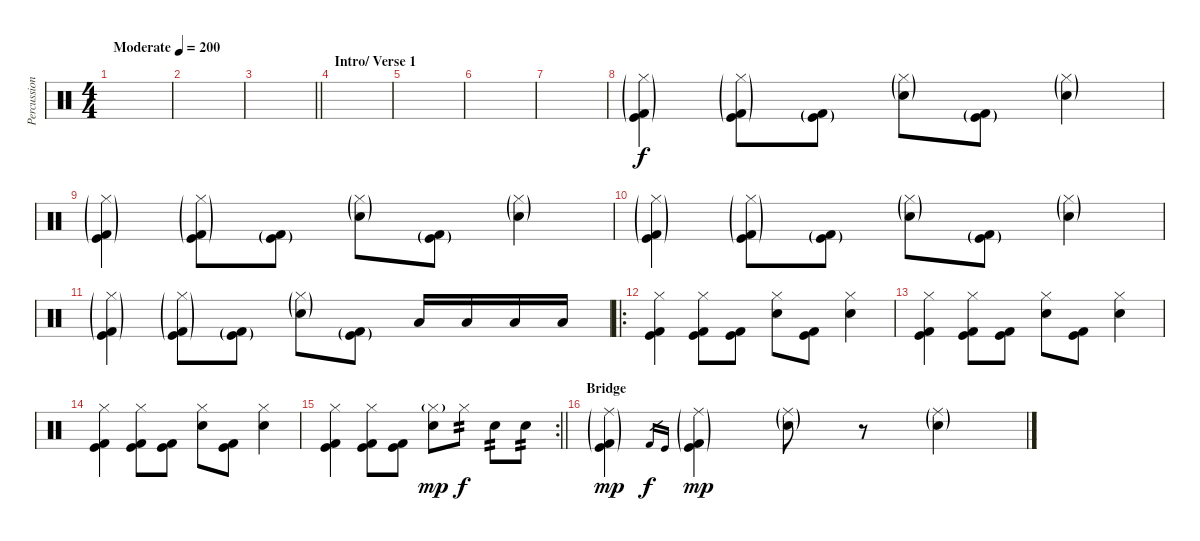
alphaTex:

\track ("Percussion" "Percussion") {instrument percussion}
\staff {score}
\articulation defaults
\ts (4 4)
\tempo (200 "Moderate")
\clef neutral
\ks c
|
|
\barLineRight lightlight
|
\section ("" "Intro/ Verse 1")
|
|
|
|
("Hi-Hat (closed)"{g} "Kick (hit)"{g} "Kick (hit) 2"{g}).4 ("Hi-Hat (closed)"{g} "Kick (hit)"{g} "Kick (hit) 2"{g}).8 ("Kick (hit)"{g} "Kick (hit) 2"{g}).8 ("Hi-Hat (closed)"{g} "Snare (hit) 2"{g}).8 ("Kick (hit)"{g} "Kick (hit) 2"{g}).8 ("Hi-Hat (closed)"{g} "Snare (hit) 2"{g}).4 |
("Hi-Hat (closed)"{g} "Kick (hit)"{g} "Kick (hit) 2"{g}).4 ("Hi-Hat (closed)"{g} "Kick (hit)"{g} "Kick (hit) 2"{g}).8 ("Kick (hit)"{g} "Kick (hit) 2"{g}).8 ("Hi-Hat (closed)"{g} "Snare (hit) 2"{g}).8 ("Kick (hit)"{g} "Kick (hit) 2"{g}).8 ("Hi-Hat (closed)"{g} "Snare (hit) 2"{g}).4 |
("Hi-Hat (closed)"{g} "Kick (hit)"{g} "Kick (hit) 2"{g}).4 ("Hi-Hat (closed)"{g} "Kick (hit)"{g} "Kick (hit) 2"{g}).8 ("Kick (hit)"{g} "Kick (hit) 2"{g}).8 ("Hi-Hat (closed)"{g} "Snare (hit) 2"{g}).8 ("Kick (hit)"{g} "Kick (hit) 2"{g}).8 ("Hi-Hat (closed)"{g} "Snare (hit) 2"{g}).4 |
("Hi-Hat (closed)"{g} "Kick (hit)"{g} "Kick (hit) 2"{g}).4 ("Hi-Hat (closed)"{g} "Kick (hit)"{g} "Kick (hit) 2"{g}).8 ("Kick (hit)"{g} "Kick (hit) 2"{g}).8 ("Hi-Hat (closed)"{g} "Snare (hit) 2"{g}).8 ("Kick (hit)"{g} "Kick (hit) 2"{g}).8 "Low Floor Tom (hit)".16{dy f volume 16} "Low Floor Tom (hit)".16 "Low Floor Tom (hit)".16 "Low Floor Tom (hit)".16 |
\ro
("Hi-Hat (closed)" "Kick (hit)" "Kick (hit) 2").4 ("Hi-Hat (closed)" "Kick (hit)" "Kick (hit) 2").8 ("Kick (hit)" "Kick (hit) 2").8 ("Hi-Hat (closed)" "Snare (hit) 2").8 ("Kick (hit)" "Kick (hit) 2").8 ("Hi-Hat (closed)" "Snare (hit) 2").4 |
("Hi-Hat (closed)" "Kick (hit)" "Kick (hit) 2").4 ("Hi-Hat (closed)" "Kick (hit)" "Kick (hit) 2").8 ("Kick (hit)" "Kick (hit) 2").8 ("Hi-Hat (closed)" "Snare (hit) 2").8 ("Kick (hit)" "Kick (hit) 2").8 ("Hi-Hat (closed)" "Snare (hit) 2").4 |
("Hi-Hat (closed)" "Kick (hit)" "Kick (hit) 2").4 ("Hi-Hat (closed)" "Kick (hit)" "Kick (hit) 2").8 ("Kick (hit)" "Kick (hit) 2").8 ("Hi-Hat (closed)" "Snare (hit) 2").8 ("Kick (hit)" "Kick (hit) 2").8 ("Hi-Hat (closed)" "Snare (hit) 2").4 |
\rc 2
\barLineRight lightlight
("Hi-Hat (closed)" "Kick (hit)" "Kick (hit) 2").4 ("Hi-Hat (closed)" "Kick (hit)" "Kick (hit) 2").8 ("Kick (hit)" "Kick (hit) 2").8 ("Hi-Hat (closed)"{g} "Snare (hit) 2").8{dy mp} "Hi-Hat (closed)".8{tp 2 dy f} "Snare (hit) 2".8{tp 2} "Snare (hit) 2".8{tp 2} |
\section ("" "Bridge")
("Ride (middle)"{g} "Kick (hit) 2"{g} "Kick (hit)"{g}).4{dy mp volume 9} "Kick (hit) 2".16{gr dy f} "Kick (hit)".16{gr} ("Ride (middle)"{g} "Kick (hit) 2"{g} "Kick (hit)"{g}).4{dy mp} ("Ride (middle)"{g} "Snare (hit) 2"{g}).8 r.8 ("Ride (middle)"{g} "Snare (hit) 2"{g}).4
